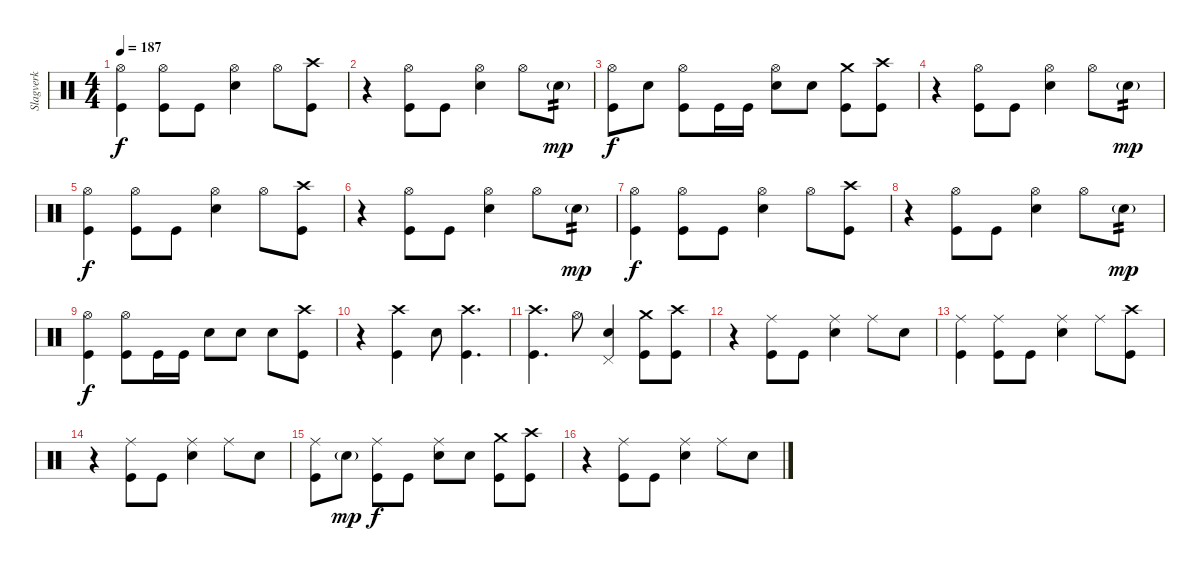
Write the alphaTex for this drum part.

\track ("Slagverk" "Slagverk") {instrument percussion}
\staff {score}
\articulation defaults
\ts (4 4)
\tempo 187
\clef neutral
\ks c
("Hi-Hat (open)" "Kick (hit)").4{dy f} ("Hi-Hat (open)" "Kick (hit)").8 "Kick (hit)".8 ("Hi-Hat (open)" "Electric Snare (hit)").4 "Hi-Hat (open)".8 ("Crash high (hit)" "Kick (hit)").8 |
r.4 ("Hi-Hat (open)" "Kick (hit)").8 "Kick (hit)".8 ("Hi-Hat (open)" "Electric Snare (hit)").4 "Hi-Hat (open)".8 "Electric Snare (hit)"{g}.8{tp 2 dy mp} |
("Hi-Hat (open)" "Kick (hit)").8{dy f} "Electric Snare (hit)".8 ("Hi-Hat (open)" "Kick (hit)").8 "Kick (hit)".16 "Kick (hit)".16 ("Hi-Hat (open)" "Electric Snare (hit)").8 "Electric Snare (hit)".8 ("Crash medium (hit)" "Kick (hit)").8 ("Crash high (hit)" "Kick (hit)").8 |
r.4 ("Hi-Hat (open)" "Kick (hit)").8 "Kick (hit)".8 ("Hi-Hat (open)" "Electric Snare (hit)").4 "Hi-Hat (open)".8 "Electric Snare (hit)"{g}.8{tp 2 dy mp} |
("Hi-Hat (open)" "Kick (hit)").4{dy f} ("Hi-Hat (open)" "Kick (hit)").8 "Kick (hit)".8 ("Hi-Hat (open)" "Electric Snare (hit)").4 "Hi-Hat (open)".8 ("Crash high (hit)" "Kick (hit)").8 |
r.4 ("Hi-Hat (open)" "Kick (hit)").8 "Kick (hit)".8 ("Hi-Hat (open)" "Electric Snare (hit)").4 "Hi-Hat (open)".8 "Electric Snare (hit)"{g}.8{tp 2 dy mp} |
("Hi-Hat (open)" "Kick (hit)").4{dy f} ("Hi-Hat (open)" "Kick (hit)").8 "Kick (hit)".8 ("Hi-Hat (open)" "Electric Snare (hit)").4 "Hi-Hat (open)".8 ("Crash high (hit)" "Kick (hit)").8 |
r.4 ("Hi-Hat (open)" "Kick (hit)").8 "Kick (hit)".8 ("Hi-Hat (open)" "Electric Snare (hit)").4 "Hi-Hat (open)".8 "Electric Snare (hit)"{g}.8{tp 2 dy mp} |
("Hi-Hat (open)" "Kick (hit)").4{dy f} ("Hi-Hat (open)" "Kick (hit)").8 "Kick (hit)".16 "Kick (hit)".16 "Electric Snare (hit)".8 "Electric Snare (hit)".8 "Electric Snare (hit)".8 ("Crash high (hit)" "Kick (hit)").8 |
r.4 ("Crash high (hit)" "Kick (hit)").4 "Electric Snare (hit)".8 ("Crash high (hit)" "Kick (hit)").4{d} |
("Crash high (hit)" "Kick (hit)").4{d} "Hi-Hat (open)".8 ("Pedal Hi-Hat (hit)" "Electric Snare (hit)").4 ("Crash medium (hit)" "Kick (hit)").8 ("Crash high (hit)" "Kick (hit)").8 |
r.4 ("Ride (middle)" "Kick (hit)").8 "Kick (hit)".8 ("Ride (middle)" "Electric Snare (hit)").4 "Ride (middle)".8 "Electric Snare (hit)".8 |
("Ride (middle)" "Kick (hit)").4 ("Ride (middle)" "Kick (hit)").8 "Kick (hit)".8 ("Ride (middle)" "Electric Snare (hit)").4 "Ride (middle)".8 ("Crash high (hit)" "Kick (hit)").8 |
r.4 ("Ride (middle)" "Kick (hit)").8 "Kick (hit)".8 ("Ride (middle)" "Electric Snare (hit)").4 "Ride (middle)".8 "Electric Snare (hit)".8 |
("Ride (middle)" "Kick (hit)").8 "Electric Snare (hit)"{g}.8{dy mp} ("Ride (middle)" "Kick (hit)").8{dy f} "Kick (hit)".8 ("Ride (middle)" "Electric Snare (hit)").8 "Electric Snare (hit)".8 ("Crash medium (hit)" "Kick (hit)").8 ("Crash high (hit)" "Kick (hit)").8 |
r.4 ("Ride (middle)" "Kick (hit)").8 "Kick (hit)".8 ("Ride (middle)" "Electric Snare (hit)").4 "Ride (middle)".8 "Electric Snare (hit)".8
